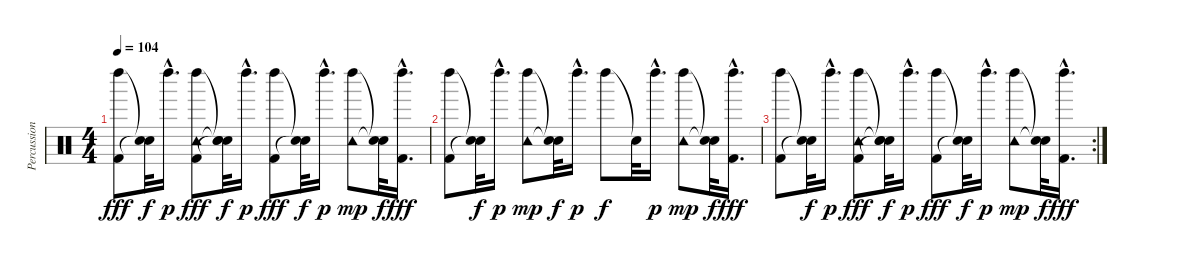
\track ("Percussions" "Percussion") {instrument percussion}
\staff {score}
\articulation defaults
\ts (4 4)
\tempo 104
\clef neutral
\ks c
("Left Maraca (hit)" "Kick (hit) 2").8{dy fff} ("Snare (hit)"{t} "Snare (hit)"{t}).32{dy f} "Left Maraca (hit)"{hac}.16{d dy p} ("Left Maraca (hit)" "Tambourine (hit)" "Kick (hit) 2").8{dy fff} ("Snare (hit)"{t} "Snare (hit)"{t} "Snare (hit)"{t}).32{dy f} "Left Maraca (hit)"{hac}.16{d dy p} ("Left Maraca (hit)" "Kick (hit) 2").8{dy fff} ("Snare (hit)"{t} "Snare (hit)"{t}).32{dy f} "Left Maraca (hit)"{hac}.16{d dy p} ("Left Maraca (hit)" "Tambourine (hit)").8{dy mp} ("Snare (hit)"{t} "Snare (hit)"{t}).32{dy f} ("Left Maraca (hit)"{hac} "Kick (hit) 2"{hac}).16{d dy fff} |
("Left Maraca (hit)" "Kick (hit) 2").8 ("Snare (hit)"{t} "Snare (hit)"{t}).32{dy f} "Left Maraca (hit)"{hac}.16{d dy p} ("Left Maraca (hit)" "Tambourine (hit)").8{dy mp} ("Snare (hit)"{t} "Snare (hit)"{t}).32{dy f} "Left Maraca (hit)"{hac}.16{d dy p} "Left Maraca (hit)".8{dy f} "Snare (hit)"{t}.32 "Left Maraca (hit)"{hac}.16{d dy p} ("Left Maraca (hit)" "Tambourine (hit)").8{dy mp} ("Snare (hit)"{t} "Snare (hit)"{t}).32{dy f} ("Left Maraca (hit)"{hac} "Kick (hit) 2"{hac}).16{d dy fff} |
\rc 2
("Left Maraca (hit)" "Kick (hit) 2").8 ("Snare (hit)"{t} "Snare (hit)"{t}).32{dy f} "Left Maraca (hit)"{hac}.16{d dy p} ("Left Maraca (hit)" "Tambourine (hit)" "Kick (hit) 2").8{dy fff} ("Snare (hit)"{t} "Snare (hit)"{t} "Snare (hit)"{t}).32{dy f} "Left Maraca (hit)"{hac}.16{d dy p} ("Left Maraca (hit)" "Kick (hit) 2").8{dy fff} ("Snare (hit)"{t} "Snare (hit)"{t}).32{dy f} "Left Maraca (hit)"{hac}.16{d dy p} ("Left Maraca (hit)" "Tambourine (hit)").8{dy mp} ("Snare (hit)"{t} "Snare (hit)"{t}).32{dy f} ("Left Maraca (hit)"{hac} "Kick (hit) 2"{hac}).16{d dy fff}
